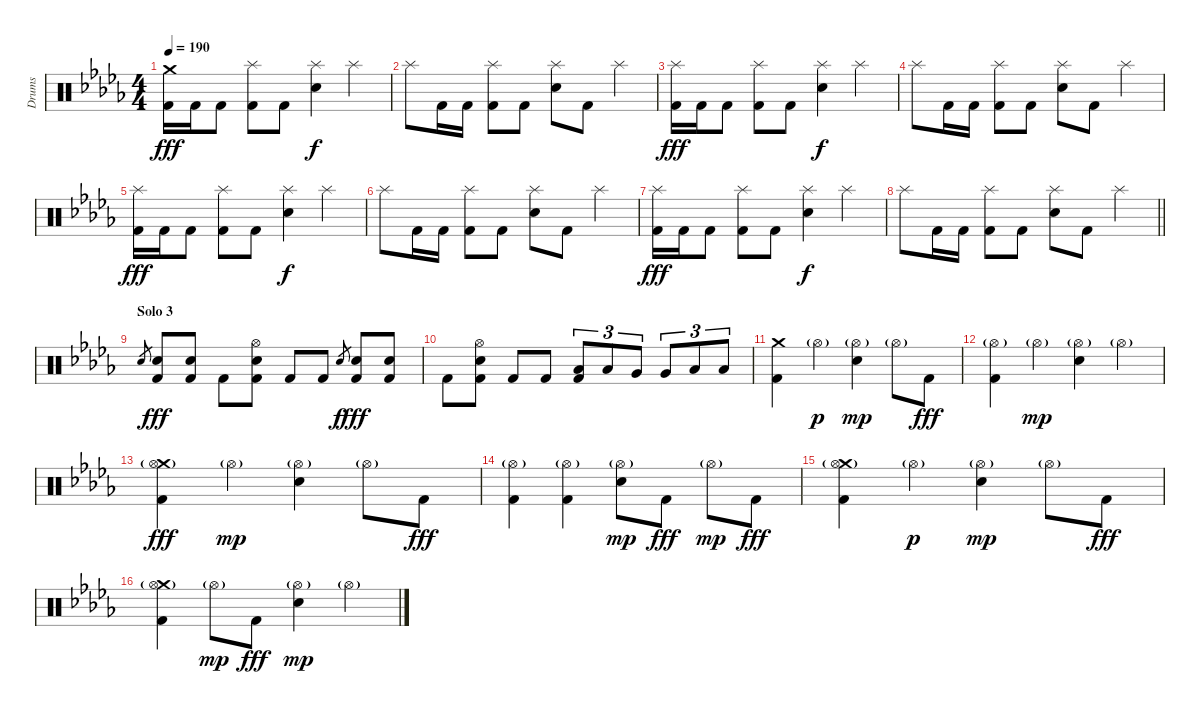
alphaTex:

\track ("Drums" "Drums") {instrument percussion}
\staff {score}
\articulation defaults
\ts (4 4)
\tempo 190
\clef neutral
\ks db
("Crash medium (hit)" "Kick (hit) 2").16{dy fff} "Kick (hit) 2".16 "Kick (hit) 2".8 ("Splash (hit)" "Kick (hit) 2").8 "Kick (hit) 2".8 ("Splash (hit)" "Electric Snare (hit)").4{dy f} "Splash (hit)".4 |
"Splash (hit)".8 "Kick (hit) 2".16 "Kick (hit) 2".16 ("Splash (hit)" "Kick (hit) 2").8 "Kick (hit) 2".8 ("Splash (hit)" "Electric Snare (hit)").8 "Kick (hit) 2".8 "Splash (hit)".4 |
("Splash (hit)" "Kick (hit) 2").16{dy fff} "Kick (hit) 2".16 "Kick (hit) 2".8 ("Splash (hit)" "Kick (hit) 2").8 "Kick (hit) 2".8 ("Splash (hit)" "Electric Snare (hit)").4{dy f} "Splash (hit)".4 |
"Splash (hit)".8 "Kick (hit) 2".16 "Kick (hit) 2".16 ("Splash (hit)" "Kick (hit) 2").8 "Kick (hit) 2".8 ("Splash (hit)" "Electric Snare (hit)").8 "Kick (hit) 2".8 "Splash (hit)".4 |
("Splash (hit)" "Kick (hit) 2").16{dy fff} "Kick (hit) 2".16 "Kick (hit) 2".8 ("Splash (hit)" "Kick (hit) 2").8 "Kick (hit) 2".8 ("Splash (hit)" "Electric Snare (hit)").4{dy f} "Splash (hit)".4 |
"Splash (hit)".8 "Kick (hit) 2".16 "Kick (hit) 2".16 ("Splash (hit)" "Kick (hit) 2").8 "Kick (hit) 2".8 ("Splash (hit)" "Electric Snare (hit)").8 "Kick (hit) 2".8 "Splash (hit)".4 |
("Splash (hit)" "Kick (hit) 2").16{dy fff} "Kick (hit) 2".16 "Kick (hit) 2".8 ("Splash (hit)" "Kick (hit) 2").8 "Kick (hit) 2".8 ("Splash (hit)" "Electric Snare (hit)").4{dy f} "Splash (hit)".4 |
\barLineRight lightlight "Splash (hit)".8 "Kick (hit) 2".16 "Kick (hit) 2".16
("Splash (hit)" "Kick (hit) 2").8 "Kick (hit) 2".8 ("Splash (hit)" "Electric Snare (hit)").8 "Kick (hit) 2".8 "Splash (hit)".4 |
\section ("" "Solo 3")
"Electric Snare (hit)".8{gr} ("Electric Snare (hit)" "Kick (hit) 2").8{dy fff} ("Electric Snare (hit)" "Kick (hit) 2").8 "Kick (hit) 2".8 ("Hi-Hat (open)" "Electric Snare (hit)" "Kick (hit) 2").8 "Kick (hit) 2".8 "Kick (hit) 2".8 "Electric Snare (hit)".8{gr dy f} ("Electric Snare (hit)" "Kick (hit) 2").8{dy fff} ("Electric Snare (hit)" "Kick (hit) 2").8 |
"Kick (hit) 2".8 ("Hi-Hat (open)" "Electric Snare (hit)" "Kick (hit) 2").8 "Kick (hit) 2".8 "Kick (hit) 2".8 ("Low Tom (hit)" "Kick (hit) 2").8{tu (3 2)} "Low Tom (hit)".8{tu (3 2)} "Very Low Tom (hit)".8{tu (3 2)} "Very Low Tom (hit)".8{tu (3 2)} "Low Floor Tom (hit)".8{tu (3 2)} "Low Floor Tom (hit)".8{tu (3 2)} |
("Crash medium (hit)" "Kick (hit) 2").4 "Hi-Hat (open)"{g}.4{dy p} ("Hi-Hat (open)"{g} "Electric Snare (hit)").4{dy mp} "Hi-Hat (open)"{g}.8 "Kick (hit) 2".8{dy fff} |
("Hi-Hat (open)"{g} "Kick (hit) 2").4 "Hi-Hat (open)"{g}.4{dy mp} ("Hi-Hat (open)"{g} "Electric Snare (hit)").4 "Hi-Hat (open)"{g}.4 |
("Crash medium (hit)" "Hi-Hat (open)"{g} "Kick (hit) 2").4{dy fff} "Hi-Hat (open)"{g}.4{dy mp} ("Hi-Hat (open)"{g} "Electric Snare (hit)").4 "Hi-Hat (open)"{g}.8 "Kick (hit) 2".8{dy fff} |
("Hi-Hat (open)"{g} "Kick (hit) 2").4 ("Hi-Hat (open)"{g} "Kick (hit) 2").4 ("Hi-Hat (open)"{g} "Electric Snare (hit)").8{dy mp} "Kick (hit) 2".8{dy fff} "Hi-Hat (open)"{g}.8{dy mp} "Kick (hit) 2".8{dy fff} |
("Crash medium (hit)" "Hi-Hat (open)"{g} "Kick (hit) 2").4 "Hi-Hat (open)"{g}.4{dy p} ("Hi-Hat (open)"{g} "Electric Snare (hit)").4{dy mp} "Hi-Hat (open)"{g}.8 "Kick (hit) 2".8{dy fff} |
("Crash medium (hit)" "Hi-Hat (open)"{g} "Kick (hit) 2").4 "Hi-Hat (open)"{g}.8{dy mp} "Kick (hit) 2".8{dy fff} ("Hi-Hat (open)"{g} "Electric Snare (hit)").4{dy mp} "Hi-Hat (open)"{g}.4
